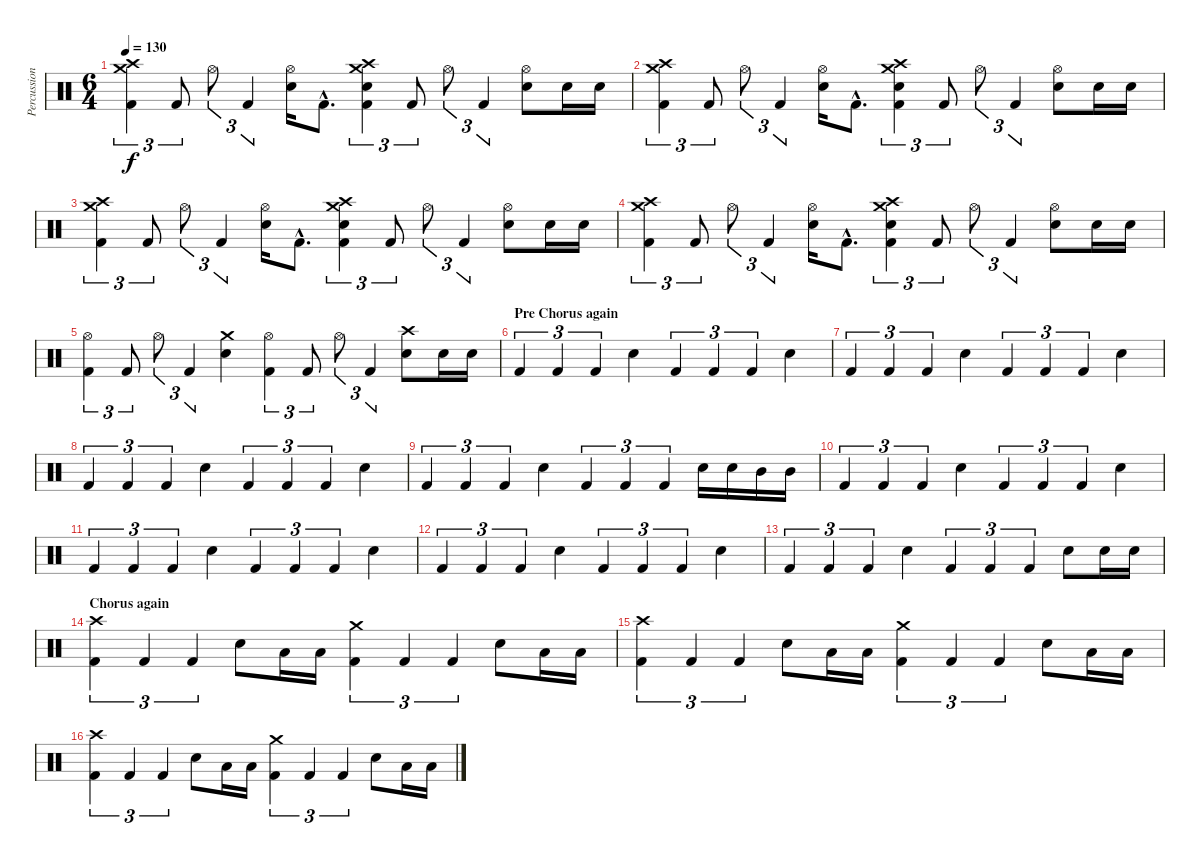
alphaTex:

\track ("Percussion" "Percussion") {instrument percussion}
\staff {score}
\articulation defaults
\ts (6 4)
\tempo 130
\clef neutral
\ks c
("Crash medium (hit)" "Crash high (hit)" "Kick (hit) 2").4{tu (3 2) dy f} "Kick (hit) 2".8{tu (3 2)} "Hi-Hat (open)".8{tu (3 2)} "Kick (hit) 2".4{tu (3 2)} ("Hi-Hat (open)" "Electric Snare (hit)").16 "Kick (hit) 2"{hac}.8{d} ("Crash medium (hit)" "Crash high (hit)" "Electric Snare (hit)" "Kick (hit) 2").4{tu (3 2)} "Kick (hit) 2".8{tu (3 2)} "Hi-Hat (open)".8{tu (3 2)} "Kick (hit) 2".4{tu (3 2)} ("Hi-Hat (open)" "Electric Snare (hit)").8 "Electric Snare (hit)".16 "Electric Snare (hit)".16 |
("Crash medium (hit)" "Crash high (hit)" "Kick (hit) 2").4{tu (3 2)} "Kick (hit) 2".8{tu (3 2)} "Hi-Hat (open)".8{tu (3 2)} "Kick (hit) 2".4{tu (3 2)} ("Hi-Hat (open)" "Electric Snare (hit)").16 "Kick (hit) 2"{hac}.8{d} ("Crash medium (hit)" "Crash high (hit)" "Electric Snare (hit)" "Kick (hit) 2").4{tu (3 2)} "Kick (hit) 2".8{tu (3 2)} "Hi-Hat (open)".8{tu (3 2)} "Kick (hit) 2".4{tu (3 2)} ("Hi-Hat (open)" "Electric Snare (hit)").8 "Electric Snare (hit)".16 "Electric Snare (hit)".16 |
("Crash medium (hit)" "Crash high (hit)" "Kick (hit) 2").4{tu (3 2)} "Kick (hit) 2".8{tu (3 2)} "Hi-Hat (open)".8{tu (3 2)} "Kick (hit) 2".4{tu (3 2)} ("Hi-Hat (open)" "Electric Snare (hit)").16 "Kick (hit) 2"{hac}.8{d} ("Crash medium (hit)" "Crash high (hit)" "Electric Snare (hit)" "Kick (hit) 2").4{tu (3 2)} "Kick (hit) 2".8{tu (3 2)} "Hi-Hat (open)".8{tu (3 2)} "Kick (hit) 2".4{tu (3 2)} ("Hi-Hat (open)" "Electric Snare (hit)").8 "Electric Snare (hit)".16 "Electric Snare (hit)".16 |
("Crash medium (hit)" "Crash high (hit)" "Kick (hit) 2").4{tu (3 2)} "Kick (hit) 2".8{tu (3 2)} "Hi-Hat (open)".8{tu (3 2)} "Kick (hit) 2".4{tu (3 2)} ("Hi-Hat (open)" "Electric Snare (hit)").16 "Kick (hit) 2"{hac}.8{d} ("Crash medium (hit)" "Crash high (hit)" "Electric Snare (hit)" "Kick (hit) 2").4{tu (3 2)} "Kick (hit) 2".8{tu (3 2)} "Hi-Hat (open)".8{tu (3 2)} "Kick (hit) 2".4{tu (3 2)} ("Hi-Hat (open)" "Electric Snare (hit)").8 "Electric Snare (hit)".16 "Electric Snare (hit)".16 |
("Hi-Hat (open)" "Kick (hit) 2").4{tu (3 2)} "Kick (hit) 2".8{tu (3 2)} "Hi-Hat (open)".8{tu (3 2)} "Kick (hit) 2".4{tu (3 2)} ("Crash medium (hit)" "Electric Snare (hit)").4 ("Hi-Hat (open)" "Kick (hit) 2").4{tu (3 2)} "Kick (hit) 2".8{tu (3 2)} "Hi-Hat (open)".8{tu (3 2)} "Kick (hit) 2".4{tu (3 2)} ("Crash high (hit)" "Electric Snare (hit)").8 "Electric Snare (hit)".16 "Electric Snare (hit)".16 |
\section ("" "Pre Chorus again")
"Kick (hit) 2".4{tu (3 2)} "Kick (hit) 2".4{tu (3 2)} "Kick (hit) 2".4{tu (3 2)} "Electric Snare (hit)".4 "Kick (hit) 2".4{tu (3 2)} "Kick (hit) 2".4{tu (3 2)} "Kick (hit) 2".4{tu (3 2)} "Electric Snare (hit)".4 |
"Kick (hit) 2".4{tu (3 2)} "Kick (hit) 2".4{tu (3 2)} "Kick (hit) 2".4{tu (3 2)} "Electric Snare (hit)".4 "Kick (hit) 2".4{tu (3 2)} "Kick (hit) 2".4{tu (3 2)} "Kick (hit) 2".4{tu (3 2)} "Electric Snare (hit)".4 |
"Kick (hit) 2".4{tu (3 2)} "Kick (hit) 2".4{tu (3 2)} "Kick (hit) 2".4{tu (3 2)} "Electric Snare (hit)".4 "Kick (hit) 2".4{tu (3 2)} "Kick (hit) 2".4{tu (3 2)} "Kick (hit) 2".4{tu (3 2)} "Electric Snare (hit)".4 |
"Kick (hit) 2".4{tu (3 2)} "Kick (hit) 2".4{tu (3 2)} "Kick (hit) 2".4{tu (3 2)} "Electric Snare (hit)".4 "Kick (hit) 2".4{tu (3 2)} "Kick (hit) 2".4{tu (3 2)} "Kick (hit) 2".4{tu (3 2)} "Electric Snare (hit)".16 "Electric Snare (hit)".16 "Mid Tom (hit)".16 "Mid Tom (hit)".16 |
"Kick (hit) 2".4{tu (3 2)} "Kick (hit) 2".4{tu (3 2)} "Kick (hit) 2".4{tu (3 2)} "Electric Snare (hit)".4 "Kick (hit) 2".4{tu (3 2)} "Kick (hit) 2".4{tu (3 2)} "Kick (hit) 2".4{tu (3 2)} "Electric Snare (hit)".4 |
"Kick (hit) 2".4{tu (3 2)} "Kick (hit) 2".4{tu (3 2)} "Kick (hit) 2".4{tu (3 2)} "Electric Snare (hit)".4 "Kick (hit) 2".4{tu (3 2)} "Kick (hit) 2".4{tu (3 2)} "Kick (hit) 2".4{tu (3 2)} "Electric Snare (hit)".4 |
"Kick (hit) 2".4{tu (3 2)} "Kick (hit) 2".4{tu (3 2)} "Kick (hit) 2".4{tu (3 2)} "Electric Snare (hit)".4 "Kick (hit) 2".4{tu (3 2)} "Kick (hit) 2".4{tu (3 2)} "Kick (hit) 2".4{tu (3 2)} "Electric Snare (hit)".4 |
"Kick (hit) 2".4{tu (3 2)} "Kick (hit) 2".4{tu (3 2)} "Kick (hit) 2".4{tu (3 2)} "Electric Snare (hit)".4 "Kick (hit) 2".4{tu (3 2)} "Kick (hit) 2".4{tu (3 2)} "Kick (hit) 2".4{tu (3 2)} "Electric Snare (hit)".8 "Electric Snare (hit)".16 "Electric Snare (hit)".16 |
\section ("" "Chorus again")
("Crash high (hit)" "Kick (hit) 2").4{tu (3 2)} "Kick (hit) 2".4{tu (3 2)} "Kick (hit) 2".4{tu (3 2)} "Electric Snare (hit)".8 "Low Floor Tom (hit)".16 "Low Floor Tom (hit)".16 ("Crash medium (hit)" "Kick (hit) 2").4{tu (3 2)} "Kick (hit) 2".4{tu (3 2)} "Kick (hit) 2".4{tu (3 2)} "Electric Snare (hit)".8 "Low Tom (hit)".16 "Low Tom (hit)".16 |
("Crash high (hit)" "Kick (hit) 2").4{tu (3 2)} "Kick (hit) 2".4{tu (3 2)} "Kick (hit) 2".4{tu (3 2)} "Electric Snare (hit)".8 "Low Floor Tom (hit)".16 "Low Floor Tom (hit)".16 ("Crash medium (hit)" "Kick (hit) 2").4{tu (3 2)} "Kick (hit) 2".4{tu (3 2)} "Kick (hit) 2".4{tu (3 2)} "Electric Snare (hit)".8 "Low Tom (hit)".16 "Low Tom (hit)".16 |
("Crash high (hit)" "Kick (hit) 2").4{tu (3 2)} "Kick (hit) 2".4{tu (3 2)} "Kick (hit) 2".4{tu (3 2)} "Electric Snare (hit)".8 "Low Floor Tom (hit)".16 "Low Floor Tom (hit)".16 ("Crash medium (hit)" "Kick (hit) 2").4{tu (3 2)} "Kick (hit) 2".4{tu (3 2)} "Kick (hit) 2".4{tu (3 2)} "Electric Snare (hit)".8 "Low Tom (hit)".16 "Low Tom (hit)".16
